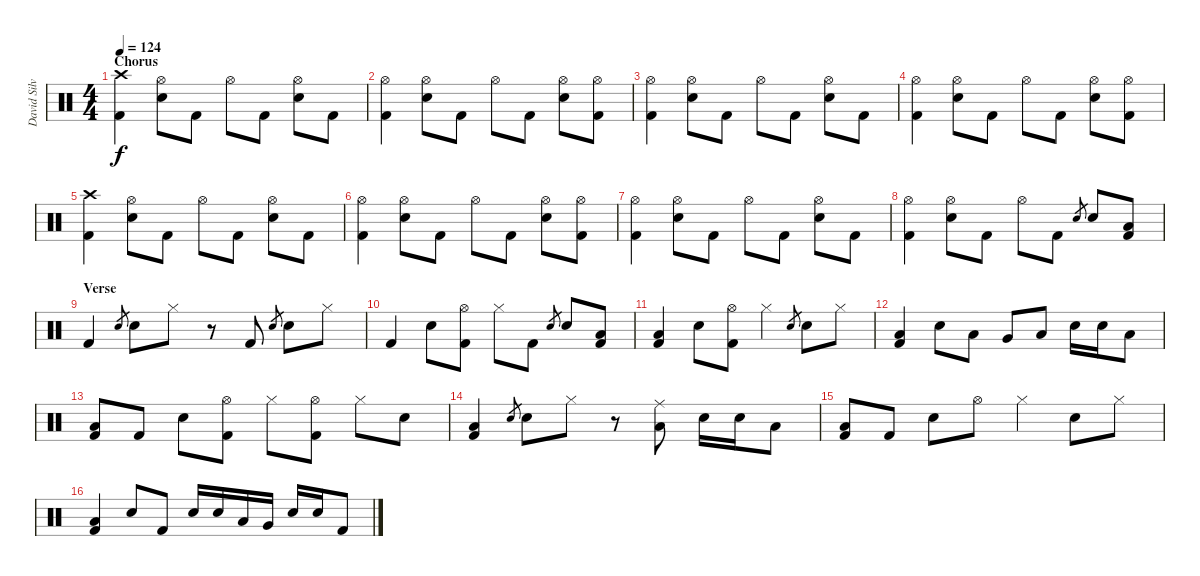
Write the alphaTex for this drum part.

\track ("David Silvera" "David Silv") {instrument percussion}
\staff {score}
\articulation defaults
\ts (4 4)
\section ("" "Chorus")
\tempo 124
\clef neutral
\ks c
("Crash high (hit)" "Kick (hit) 2").4{dy f} ("Hi-Hat (open)" "Electric Snare (hit)").8 "Kick (hit) 2".8 "Hi-Hat (open)".8 "Kick (hit) 2".8 ("Hi-Hat (open)" "Electric Snare (hit)").8 "Kick (hit) 2".8 |
("Hi-Hat (open)" "Kick (hit) 2").4 ("Hi-Hat (open)" "Electric Snare (hit)").8 "Kick (hit) 2".8 "Hi-Hat (open)".8 "Kick (hit) 2".8 ("Hi-Hat (open)" "Electric Snare (hit)").8 ("Hi-Hat (open)" "Kick (hit) 2").8 |
("Hi-Hat (open)" "Kick (hit) 2").4 ("Hi-Hat (open)" "Electric Snare (hit)").8 "Kick (hit) 2".8 "Hi-Hat (open)".8 "Kick (hit) 2".8 ("Hi-Hat (open)" "Electric Snare (hit)").8 "Kick (hit) 2".8 |
("Hi-Hat (open)" "Kick (hit) 2").4 ("Hi-Hat (open)" "Electric Snare (hit)").8 "Kick (hit) 2".8 "Hi-Hat (open)".8 "Kick (hit) 2".8 ("Hi-Hat (open)" "Electric Snare (hit)").8 ("Hi-Hat (open)" "Kick (hit) 2").8 |
("Crash high (hit)" "Kick (hit) 2").4 ("Hi-Hat (open)" "Electric Snare (hit)").8 "Kick (hit) 2".8 "Hi-Hat (open)".8 "Kick (hit) 2".8 ("Hi-Hat (open)" "Electric Snare (hit)").8 "Kick (hit) 2".8 |
("Hi-Hat (open)" "Kick (hit) 2").4 ("Hi-Hat (open)" "Electric Snare (hit)").8 "Kick (hit) 2".8 "Hi-Hat (open)".8 "Kick (hit) 2".8 ("Hi-Hat (open)" "Electric Snare (hit)").8 ("Hi-Hat (open)" "Kick (hit) 2").8 |
("Hi-Hat (open)" "Kick (hit) 2").4 ("Hi-Hat (open)" "Electric Snare (hit)").8 "Kick (hit) 2".8 "Hi-Hat (open)".8 "Kick (hit) 2".8 ("Hi-Hat (open)" "Electric Snare (hit)").8 "Kick (hit) 2".8 |
("Hi-Hat (open)" "Kick (hit) 2").4 ("Hi-Hat (open)" "Electric Snare (hit)").8 "Kick (hit) 2".8 "Hi-Hat (open)".8 "Kick (hit) 2".8 "Electric Snare (hit)".8{gr} "Electric Snare (hit)".8 ("Low Floor Tom (hit)" "Kick (hit) 2").8 |
\section ("" "Verse")
"Kick (hit) 2".4 "Electric Snare (hit)".8{gr} "Electric Snare (hit)".8 "Hi-Hat (closed)".8 r.8 "Kick (hit) 2".8 "Electric Snare (hit)".8{gr} "Electric Snare (hit)".8 "Hi-Hat (closed)".8 |
"Kick (hit) 2".4 "Electric Snare (hit)".8 ("Hi-Hat (open)" "Kick (hit) 2").8 "Hi-Hat (closed)".8 "Kick (hit) 2".8 "Electric Snare (hit)".8{gr} "Electric Snare (hit)".8 ("Low Tom (hit)" "Kick (hit) 2").8 |
("Low Tom (hit)" "Kick (hit) 2").4 "Electric Snare (hit)".8 ("Hi-Hat (open)" "Kick (hit) 2").8 "Hi-Hat (closed)".4 "Electric Snare (hit)".8{gr} "Electric Snare (hit)".8 "Hi-Hat (closed)".8 |
("Low Tom (hit)" "Kick (hit) 2").4 "Electric Snare (hit)".8 "Low Tom (hit)".8 "Very Low Tom (hit)".8 "Low Floor Tom (hit)".8 "Electric Snare (hit)".16 "Electric Snare (hit)".16 "Low Floor Tom (hit)".8 |
("Low Tom (hit)" "Kick (hit) 2").8 "Kick (hit) 2".8 "Electric Snare (hit)".8 ("Hi-Hat (open)" "Kick (hit) 2").8 "Hi-Hat (closed)".8 ("Hi-Hat (open)" "Kick (hit) 2").8 "Hi-Hat (closed)".8 "Electric Snare (hit)".8 |
("Low Tom (hit)" "Kick (hit) 2").4 "Electric Snare (hit)".8{gr} "Electric Snare (hit)".8 "Hi-Hat (closed)".8 r.8 ("Ride (middle)" "Low Floor Tom (hit)").8 "Electric Snare (hit)".16 "Electric Snare (hit)".16 "Low Floor Tom (hit)".8 |
("Low Tom (hit)" "Kick (hit) 2").8 "Kick (hit) 2".8 "Electric Snare (hit)".8 "Hi-Hat (open)".8 "Hi-Hat (closed)".4 "Electric Snare (hit)".8 "Hi-Hat (closed)".8 |
("Low Tom (hit)" "Kick (hit) 2").4 "Electric Snare (hit)".8 "Kick (hit) 2".8 "Electric Snare (hit)".16 "Electric Snare (hit)".16 "Low Tom (hit)".16 "Very Low Tom (hit)".16 "Electric Snare (hit)".16 "Electric Snare (hit)".16 "Kick (hit) 2".8
